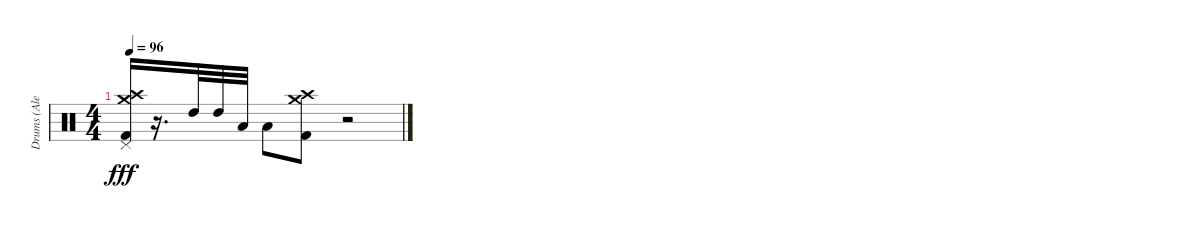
\track ("Drums (Alex Van Halen)" "Drums (Ale") {instrument percussion}
\staff {score}
\articulation defaults
\ts (4 4)
\tempo 96
\clef neutral
\ks c
("Pedal Hi-Hat (hit)" "Crash medium (hit)" "Crash high (hit)" "Kick (hit) 2").16{dy fff} r.16{d} "High Tom (hit)".32 "High Tom (hit)".32 "Low Tom (hit)".32 "Low Tom (hit)".8 ("Crash high (hit)" "Crash medium (hit)" "Kick (hit) 2").8 r.2
